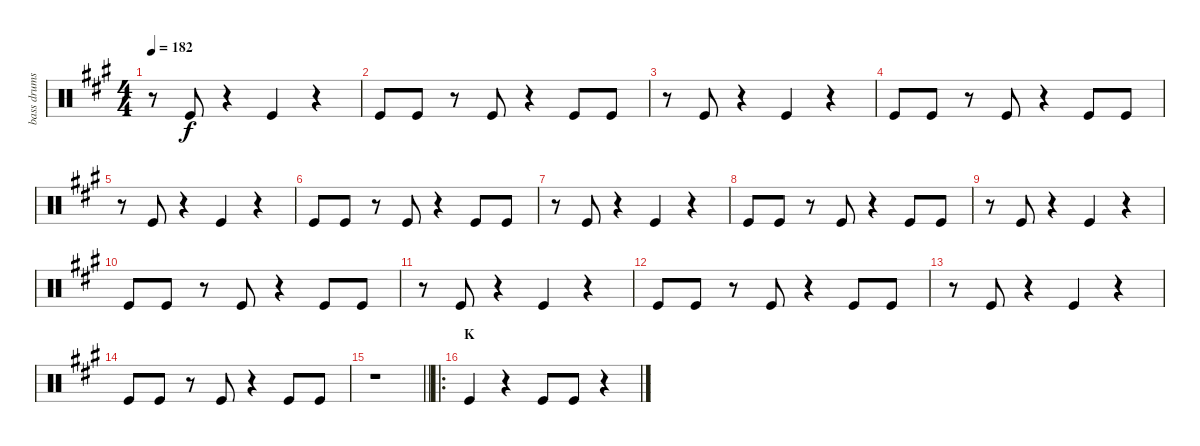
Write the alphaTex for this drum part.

\track ("bass drums" "bass drums") {instrument percussion}
\staff {score}
\articulation defaults
\ts (4 4)
\tempo 182
\clef neutral
\ks f#minor
r.8{dy f} "Kick (hit)".8 r.4 "Kick (hit)".4 r.4 |
"Kick (hit)".8 "Kick (hit)".8 r.8 "Kick (hit)".8 r.4 "Kick (hit)".8 "Kick (hit)".8 |
r.8 "Kick (hit)".8 r.4 "Kick (hit)".4 r.4 |
"Kick (hit)".8 "Kick (hit)".8 r.8 "Kick (hit)".8 r.4 "Kick (hit)".8 "Kick (hit)".8 |
r.8 "Kick (hit)".8 r.4 "Kick (hit)".4 r.4 |
"Kick (hit)".8 "Kick (hit)".8 r.8 "Kick (hit)".8 r.4 "Kick (hit)".8 "Kick (hit)".8 |
r.8 "Kick (hit)".8 r.4 "Kick (hit)".4 r.4 |
"Kick (hit)".8 "Kick (hit)".8 r.8 "Kick (hit)".8 r.4 "Kick (hit)".8 "Kick (hit)".8 |
r.8 "Kick (hit)".8 r.4 "Kick (hit)".4 r.4 |
"Kick (hit)".8 "Kick (hit)".8 r.8 "Kick (hit)".8 r.4 "Kick (hit)".8 "Kick (hit)".8 |
r.8 "Kick (hit)".8 r.4 "Kick (hit)".4 r.4 |
"Kick (hit)".8 "Kick (hit)".8 r.8 "Kick (hit)".8 r.4 "Kick (hit)".8 "Kick (hit)".8 |
r.8 "Kick (hit)".8 r.4 "Kick (hit)".4 r.4 |
"Kick (hit)".8 "Kick (hit)".8 r.8 "Kick (hit)".8 r.4 "Kick (hit)".8 "Kick (hit)".8 |
\barLineRight lightlight
r.1 |
\ro
\section ("" "K")
"Kick (hit)".4 r.4 "Kick (hit)".8 "Kick (hit)".8 r.4
